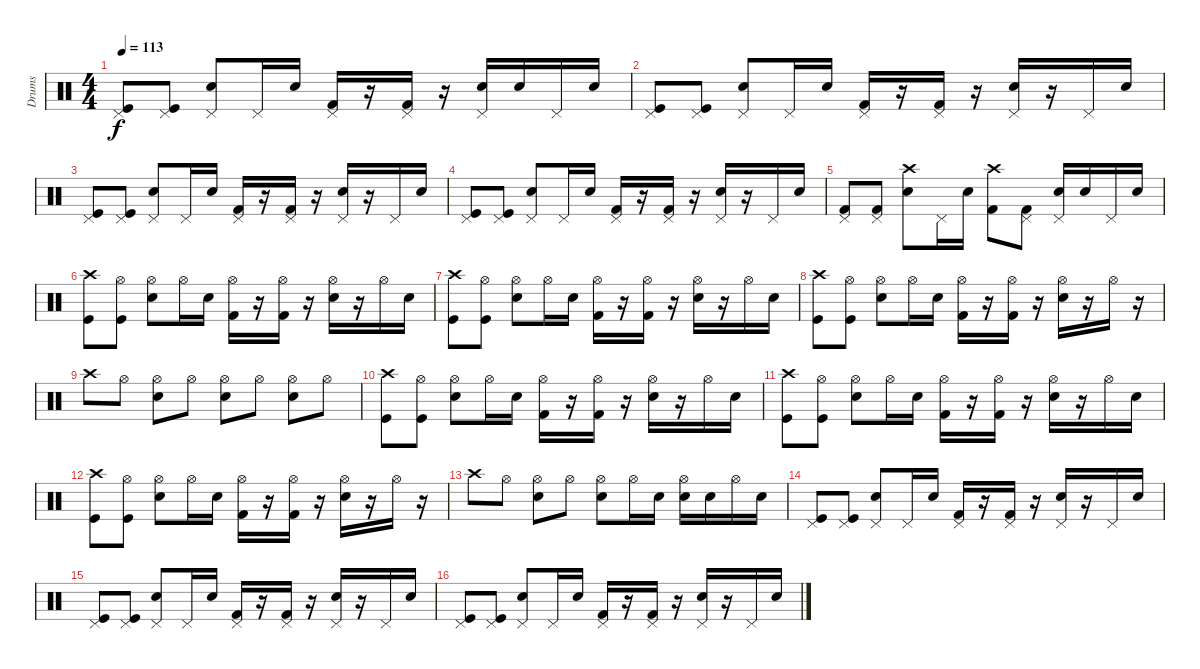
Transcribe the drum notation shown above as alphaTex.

\track ("Drums" "Drums") {instrument percussion}
\staff {score}
\articulation defaults
\ts (4 4)
\tempo 113
\clef neutral
\ks c
("Pedal Hi-Hat (hit)" "Kick (hit)").8{dy f} ("Pedal Hi-Hat (hit)" "Kick (hit)").8 ("Pedal Hi-Hat (hit)" "Electric Snare (hit)").8 "Pedal Hi-Hat (hit)".16 "Electric Snare (hit)".16 ("Pedal Hi-Hat (hit)" "Kick (hit) 2").16 r.16 ("Pedal Hi-Hat (hit)" "Kick (hit) 2").16 r.16 ("Pedal Hi-Hat (hit)" "Electric Snare (hit)").16 "Electric Snare (hit)".16 "Pedal Hi-Hat (hit)".16 "Electric Snare (hit)".16 |
("Pedal Hi-Hat (hit)" "Kick (hit)").8 ("Pedal Hi-Hat (hit)" "Kick (hit)").8 ("Pedal Hi-Hat (hit)" "Electric Snare (hit)").8 "Pedal Hi-Hat (hit)".16 "Electric Snare (hit)".16 ("Pedal Hi-Hat (hit)" "Kick (hit) 2").16 r.16 ("Pedal Hi-Hat (hit)" "Kick (hit) 2").16 r.16 ("Pedal Hi-Hat (hit)" "Electric Snare (hit)").16 r.16 "Pedal Hi-Hat (hit)".16 "Electric Snare (hit)".16 |
("Pedal Hi-Hat (hit)" "Kick (hit)").8 ("Pedal Hi-Hat (hit)" "Kick (hit)").8 ("Pedal Hi-Hat (hit)" "Electric Snare (hit)").8 "Pedal Hi-Hat (hit)".16 "Electric Snare (hit)".16 ("Pedal Hi-Hat (hit)" "Kick (hit) 2").16 r.16 ("Pedal Hi-Hat (hit)" "Kick (hit) 2").16 r.16 ("Pedal Hi-Hat (hit)" "Electric Snare (hit)").16 r.16 "Pedal Hi-Hat (hit)".16 "Electric Snare (hit)".16 |
("Pedal Hi-Hat (hit)" "Kick (hit)").8 ("Pedal Hi-Hat (hit)" "Kick (hit)").8 ("Pedal Hi-Hat (hit)" "Electric Snare (hit)").8 "Pedal Hi-Hat (hit)".16 "Electric Snare (hit)".16 ("Pedal Hi-Hat (hit)" "Kick (hit) 2").16 r.16 ("Pedal Hi-Hat (hit)" "Kick (hit) 2").16 r.16 ("Pedal Hi-Hat (hit)" "Electric Snare (hit)").16 r.16 "Pedal Hi-Hat (hit)".16 "Electric Snare (hit)".16 |
("Pedal Hi-Hat (hit)" "Kick (hit) 2").8 ("Pedal Hi-Hat (hit)" "Kick (hit) 2").8 ("Crash high (hit)" "Electric Snare (hit)").8 "Pedal Hi-Hat (hit)".16 "Electric Snare (hit)".16 ("Crash high (hit)" "Kick (hit) 2").8 ("Pedal Hi-Hat (hit)" "Kick (hit) 2").8 ("Pedal Hi-Hat (hit)" "Electric Snare (hit)").16 "Electric Snare (hit)".16 "Pedal Hi-Hat (hit)".16 "Electric Snare (hit)".16 |
("Crash high (hit)" "Kick (hit)").8 ("Hi-Hat (open)" "Kick (hit)").8 ("Hi-Hat (open)" "Electric Snare (hit)").8 "Hi-Hat (open)".16 "Electric Snare (hit)".16 ("Hi-Hat (open)" "Kick (hit) 2").16 r.16 ("Hi-Hat (open)" "Kick (hit) 2").16 r.16 ("Hi-Hat (open)" "Electric Snare (hit)").16 r.16 "Hi-Hat (open)".16 "Electric Snare (hit)".16 |
("Crash high (hit)" "Kick (hit)").8 ("Hi-Hat (open)" "Kick (hit)").8 ("Hi-Hat (open)" "Electric Snare (hit)").8 "Hi-Hat (open)".16 "Electric Snare (hit)".16 ("Hi-Hat (open)" "Kick (hit) 2").16 r.16 ("Hi-Hat (open)" "Kick (hit) 2").16 r.16 ("Hi-Hat (open)" "Electric Snare (hit)").16 r.16 "Hi-Hat (open)".16 "Electric Snare (hit)".16 |
("Crash high (hit)" "Kick (hit)").8 ("Hi-Hat (open)" "Kick (hit)").8 ("Hi-Hat (open)" "Electric Snare (hit)").8 "Hi-Hat (open)".16 "Electric Snare (hit)".16 ("Hi-Hat (open)" "Kick (hit) 2").16 r.16 ("Hi-Hat (open)" "Kick (hit) 2").16 r.16 ("Hi-Hat (open)" "Electric Snare (hit)").16 r.16 "Hi-Hat (open)".16 r.16 |
"Crash high (hit)".8 "Hi-Hat (open)".8 ("Hi-Hat (open)" "Electric Snare (hit)").8 "Hi-Hat (open)".8 ("Hi-Hat (open)" "Electric Snare (hit)").8 "Hi-Hat (open)".8 ("Hi-Hat (open)" "Electric Snare (hit)").8 "Hi-Hat (open)".8 |
("Crash high (hit)" "Kick (hit)").8 ("Hi-Hat (open)" "Kick (hit)").8 ("Hi-Hat (open)" "Electric Snare (hit)").8 "Hi-Hat (open)".16 "Electric Snare (hit)".16 ("Hi-Hat (open)" "Kick (hit) 2").16 r.16 ("Hi-Hat (open)" "Kick (hit) 2").16 r.16 ("Hi-Hat (open)" "Electric Snare (hit)").16 r.16 "Hi-Hat (open)".16 "Electric Snare (hit)".16 |
("Crash high (hit)" "Kick (hit)").8 ("Hi-Hat (open)" "Kick (hit)").8 ("Hi-Hat (open)" "Electric Snare (hit)").8 "Hi-Hat (open)".16 "Electric Snare (hit)".16 ("Hi-Hat (open)" "Kick (hit) 2").16 r.16 ("Hi-Hat (open)" "Kick (hit) 2").16 r.16 ("Hi-Hat (open)" "Electric Snare (hit)").16 r.16 "Hi-Hat (open)".16 "Electric Snare (hit)".16 |
("Crash high (hit)" "Kick (hit)").8 ("Hi-Hat (open)" "Kick (hit)").8 ("Hi-Hat (open)" "Electric Snare (hit)").8 "Hi-Hat (open)".16 "Electric Snare (hit)".16 ("Hi-Hat (open)" "Kick (hit) 2").16 r.16 ("Hi-Hat (open)" "Kick (hit) 2").16 r.16 ("Hi-Hat (open)" "Electric Snare (hit)").16 r.16 "Hi-Hat (open)".16 r.16 |
"Crash high (hit)".8 "Hi-Hat (open)".8 ("Hi-Hat (open)" "Electric Snare (hit)").8 "Hi-Hat (open)".8 ("Hi-Hat (open)" "Electric Snare (hit)").8 "Hi-Hat (open)".16 "Electric Snare (hit)".16 ("Hi-Hat (open)" "Electric Snare (hit)").16 "Electric Snare (hit)".16 "Hi-Hat (open)".16 "Electric Snare (hit)".16 |
("Pedal Hi-Hat (hit)" "Kick (hit)").8 ("Pedal Hi-Hat (hit)" "Kick (hit)").8 ("Pedal Hi-Hat (hit)" "Electric Snare (hit)").8 "Pedal Hi-Hat (hit)".16 "Electric Snare (hit)".16 ("Pedal Hi-Hat (hit)" "Kick (hit) 2").16 r.16 ("Pedal Hi-Hat (hit)" "Kick (hit) 2").16 r.16 ("Pedal Hi-Hat (hit)" "Electric Snare (hit)").16 r.16 "Pedal Hi-Hat (hit)".16 "Electric Snare (hit)".16 |
("Pedal Hi-Hat (hit)" "Kick (hit)").8 ("Pedal Hi-Hat (hit)" "Kick (hit)").8 ("Pedal Hi-Hat (hit)" "Electric Snare (hit)").8 "Pedal Hi-Hat (hit)".16 "Electric Snare (hit)".16 ("Pedal Hi-Hat (hit)" "Kick (hit) 2").16 r.16 ("Pedal Hi-Hat (hit)" "Kick (hit) 2").16 r.16 ("Pedal Hi-Hat (hit)" "Electric Snare (hit)").16 r.16 "Pedal Hi-Hat (hit)".16 "Electric Snare (hit)".16 |
("Pedal Hi-Hat (hit)" "Kick (hit)").8 ("Pedal Hi-Hat (hit)" "Kick (hit)").8 ("Pedal Hi-Hat (hit)" "Electric Snare (hit)").8 "Pedal Hi-Hat (hit)".16 "Electric Snare (hit)".16 ("Pedal Hi-Hat (hit)" "Kick (hit) 2").16 r.16 ("Pedal Hi-Hat (hit)" "Kick (hit) 2").16 r.16 ("Pedal Hi-Hat (hit)" "Electric Snare (hit)").16 r.16 "Pedal Hi-Hat (hit)".16 "Electric Snare (hit)".16
